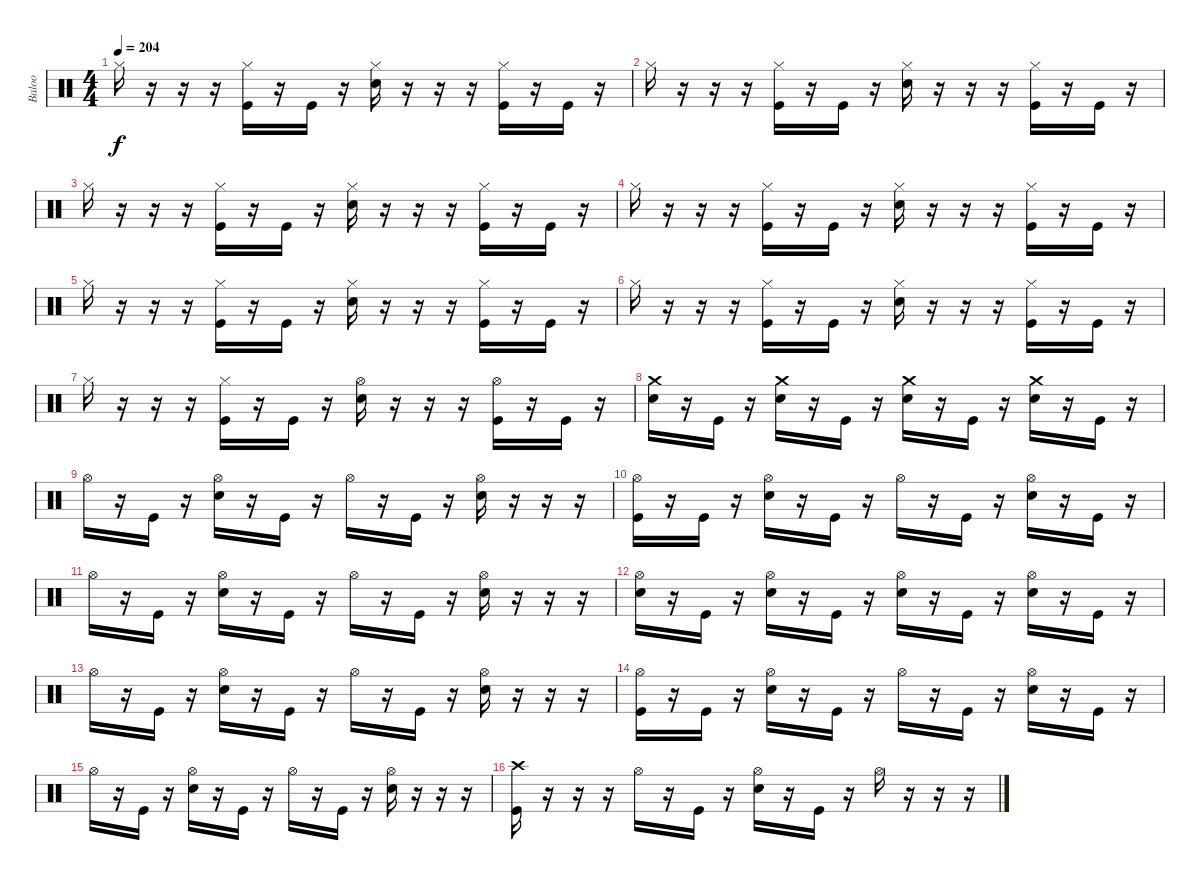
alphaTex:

\track ("Baloo" "Baloo") {instrument percussion}
\staff {score}
\articulation defaults
\ts (4 4)
\tempo 204
\clef neutral
\ks c "Hi-Hat (closed)".16{dy f}
r.16 r.16 r.16 ("Hi-Hat (closed)" "Kick (hit)").16 r.16 "Kick (hit)".16 r.16 ("Hi-Hat (closed)" "Electric Snare (hit)").16 r.16 r.16 r.16 ("Hi-Hat (closed)" "Kick (hit)").16 r.16 "Kick (hit)".16 r.16 |
"Hi-Hat (closed)".16 r.16 r.16 r.16 ("Hi-Hat (closed)" "Kick (hit)").16 r.16 "Kick (hit)".16 r.16 ("Hi-Hat (closed)" "Electric Snare (hit)").16 r.16 r.16 r.16 ("Hi-Hat (closed)" "Kick (hit)").16 r.16 "Kick (hit)".16 r.16 |
"Hi-Hat (closed)".16 r.16 r.16 r.16 ("Hi-Hat (closed)" "Kick (hit)").16 r.16 "Kick (hit)".16 r.16 ("Hi-Hat (closed)" "Electric Snare (hit)").16 r.16 r.16 r.16 ("Hi-Hat (closed)" "Kick (hit)").16 r.16 "Kick (hit)".16 r.16 |
"Hi-Hat (closed)".16 r.16 r.16 r.16 ("Hi-Hat (closed)" "Kick (hit)").16 r.16 "Kick (hit)".16 r.16 ("Hi-Hat (closed)" "Electric Snare (hit)").16 r.16 r.16 r.16 ("Hi-Hat (closed)" "Kick (hit)").16 r.16 "Kick (hit)".16 r.16 |
"Hi-Hat (closed)".16 r.16 r.16 r.16 ("Hi-Hat (closed)" "Kick (hit)").16 r.16 "Kick (hit)".16 r.16 ("Hi-Hat (closed)" "Electric Snare (hit)").16 r.16 r.16 r.16 ("Hi-Hat (closed)" "Kick (hit)").16 r.16 "Kick (hit)".16 r.16 |
"Hi-Hat (closed)".16 r.16 r.16 r.16 ("Hi-Hat (closed)" "Kick (hit)").16 r.16 "Kick (hit)".16 r.16 ("Hi-Hat (closed)" "Electric Snare (hit)").16 r.16 r.16 r.16 ("Hi-Hat (closed)" "Kick (hit)").16 r.16 "Kick (hit)".16 r.16 |
"Hi-Hat (closed)".16 r.16 r.16 r.16 ("Hi-Hat (closed)" "Kick (hit)").16 r.16 "Kick (hit)".16 r.16 ("Hi-Hat (open)" "Electric Snare (hit)").16 r.16 r.16 r.16 ("Hi-Hat (open)" "Kick (hit)").16 r.16 "Kick (hit)".16 r.16 |
("Crash medium (hit)" "Electric Snare (hit)").16 r.16 "Kick (hit)".16 r.16 ("Crash medium (hit)" "Electric Snare (hit)").16 r.16 "Kick (hit)".16 r.16 ("Crash medium (hit)" "Electric Snare (hit)").16 r.16 "Kick (hit)".16 r.16 ("Crash medium (hit)" "Electric Snare (hit)").16 r.16 "Kick (hit)".16 r.16 |
"Hi-Hat (open)".16 r.16 "Kick (hit)".16 r.16 ("Hi-Hat (open)" "Electric Snare (hit)").16 r.16 "Kick (hit)".16 r.16 "Hi-Hat (open)".16 r.16 "Kick (hit)".16 r.16 ("Hi-Hat (open)" "Electric Snare (hit)").16 r.16 r.16 r.16 |
("Hi-Hat (open)" "Kick (hit)").16 r.16 "Kick (hit)".16 r.16 ("Hi-Hat (open)" "Electric Snare (hit)").16 r.16 "Kick (hit)".16 r.16 "Hi-Hat (open)".16 r.16 "Kick (hit)".16 r.16 ("Hi-Hat (open)" "Electric Snare (hit)").16 r.16 "Kick (hit)".16 r.16 |
"Hi-Hat (open)".16 r.16 "Kick (hit)".16 r.16 ("Hi-Hat (open)" "Electric Snare (hit)").16 r.16 "Kick (hit)".16 r.16 "Hi-Hat (open)".16 r.16 "Kick (hit)".16 r.16 ("Hi-Hat (open)" "Electric Snare (hit)").16 r.16 r.16 r.16 |
("Hi-Hat (open)" "Electric Snare (hit)").16 r.16 "Kick (hit)".16 r.16 ("Hi-Hat (open)" "Electric Snare (hit)").16 r.16 "Kick (hit)".16 r.16 ("Hi-Hat (open)" "Electric Snare (hit)").16 r.16 "Kick (hit)".16 r.16 ("Hi-Hat (open)" "Electric Snare (hit)").16 r.16 "Kick (hit)".16 r.16 |
"Hi-Hat (open)".16 r.16 "Kick (hit)".16 r.16 ("Hi-Hat (open)" "Electric Snare (hit)").16 r.16 "Kick (hit)".16 r.16 "Hi-Hat (open)".16 r.16 "Kick (hit)".16 r.16 ("Hi-Hat (open)" "Electric Snare (hit)").16 r.16 r.16 r.16 |
("Hi-Hat (open)" "Kick (hit)").16 r.16 "Kick (hit)".16 r.16 ("Hi-Hat (open)" "Electric Snare (hit)").16 r.16 "Kick (hit)".16 r.16 "Hi-Hat (open)".16 r.16 "Kick (hit)".16 r.16 ("Hi-Hat (open)" "Electric Snare (hit)").16 r.16 "Kick (hit)".16 r.16 |
"Hi-Hat (open)".16 r.16 "Kick (hit)".16 r.16 ("Hi-Hat (open)" "Electric Snare (hit)").16 r.16 "Kick (hit)".16 r.16 "Hi-Hat (open)".16 r.16 "Kick (hit)".16 r.16 ("Hi-Hat (open)" "Electric Snare (hit)").16 r.16 r.16 r.16 |
("Crash high (hit)" "Kick (hit)").16 r.16 r.16 r.16 "Hi-Hat (open)".16 r.16 "Kick (hit)".16 r.16 ("Hi-Hat (open)" "Electric Snare (hit)").16 r.16 "Kick (hit)".16 r.16 "Hi-Hat (open)".16 r.16 r.16 r.16
